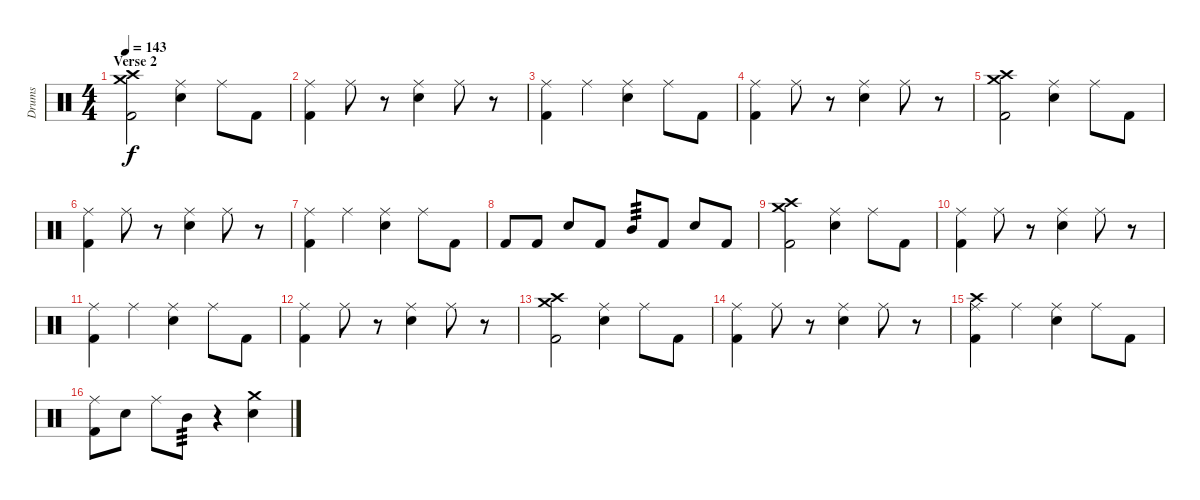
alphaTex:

\track ("Drums" "Drums") {instrument percussion}
\staff {score}
\articulation defaults
\ts (4 4)
\section ("" "Verse 2")
\tempo 143
\clef neutral
\ks c
("Crash medium (hit)" "Crash high (hit)" "Kick (hit) 2").2{dy f} ("Ride (middle)" "Electric Snare (hit)").4 "Ride (middle)".8 "Kick (hit) 2".8 |
("Ride (middle)" "Kick (hit) 2").4 "Ride (middle)".8 r.8 ("Ride (middle)" "Electric Snare (hit)").4 "Ride (middle)".8 r.8 |
("Ride (middle)" "Kick (hit) 2").4 "Ride (middle)".4 ("Ride (middle)" "Electric Snare (hit)").4 "Ride (middle)".8 "Kick (hit) 2".8 |
("Ride (middle)" "Kick (hit) 2").4 "Ride (middle)".8 r.8 ("Ride (middle)" "Electric Snare (hit)").4 "Ride (middle)".8 r.8 |
("Crash medium (hit)" "Crash high (hit)" "Kick (hit) 2").2 ("Ride (middle)" "Electric Snare (hit)").4 "Ride (middle)".8 "Kick (hit) 2".8 |
("Ride (middle)" "Kick (hit) 2").4 "Ride (middle)".8 r.8 ("Ride (middle)" "Electric Snare (hit)").4 "Ride (middle)".8 r.8 |
("Ride (middle)" "Kick (hit) 2").4 "Ride (middle)".4 ("Ride (middle)" "Electric Snare (hit)").4 "Ride (middle)".8 "Kick (hit) 2".8 |
"Kick (hit) 2".8 "Kick (hit) 2".8 "Electric Snare (hit)".8 "Kick (hit) 2".8 "Mid Tom (hit)".8{tp 3} "Kick (hit) 2".8 "Electric Snare (hit)".8 "Kick (hit) 2".8 |
("Crash medium (hit)" "Crash high (hit)" "Kick (hit) 2").2 ("Ride (middle)" "Electric Snare (hit)").4 "Ride (middle)".8 "Kick (hit) 2".8 |
("Ride (middle)" "Kick (hit) 2").4 "Ride (middle)".8 r.8 ("Ride (middle)" "Electric Snare (hit)").4 "Ride (middle)".8 r.8 |
("Ride (middle)" "Kick (hit) 2").4 "Ride (middle)".4 ("Ride (middle)" "Electric Snare (hit)").4 "Ride (middle)".8 "Kick (hit) 2".8 |
("Ride (middle)" "Kick (hit) 2").4 "Ride (middle)".8 r.8 ("Ride (middle)" "Electric Snare (hit)").4 "Ride (middle)".8 r.8 |
("Crash medium (hit)" "Crash high (hit)" "Kick (hit) 2").2 ("Ride (middle)" "Electric Snare (hit)").4 "Ride (middle)".8 "Kick (hit) 2".8 |
("Ride (middle)" "Kick (hit) 2").4 "Ride (middle)".8 r.8 ("Ride (middle)" "Electric Snare (hit)").4 "Ride (middle)".8 r.8 |
("Ride (middle)" "Crash high (hit)" "Kick (hit) 2").4 "Ride (middle)".4 ("Ride (middle)" "Electric Snare (hit)").4 "Ride (middle)".8 "Kick (hit) 2".8 |
("Ride (middle)" "Kick (hit) 2").8 "Electric Snare (hit)".8 "Ride (middle)".8 "Mid Tom (hit)".8{tp 3} r.4 ("Crash medium (hit)" "Electric Snare (hit)").4
